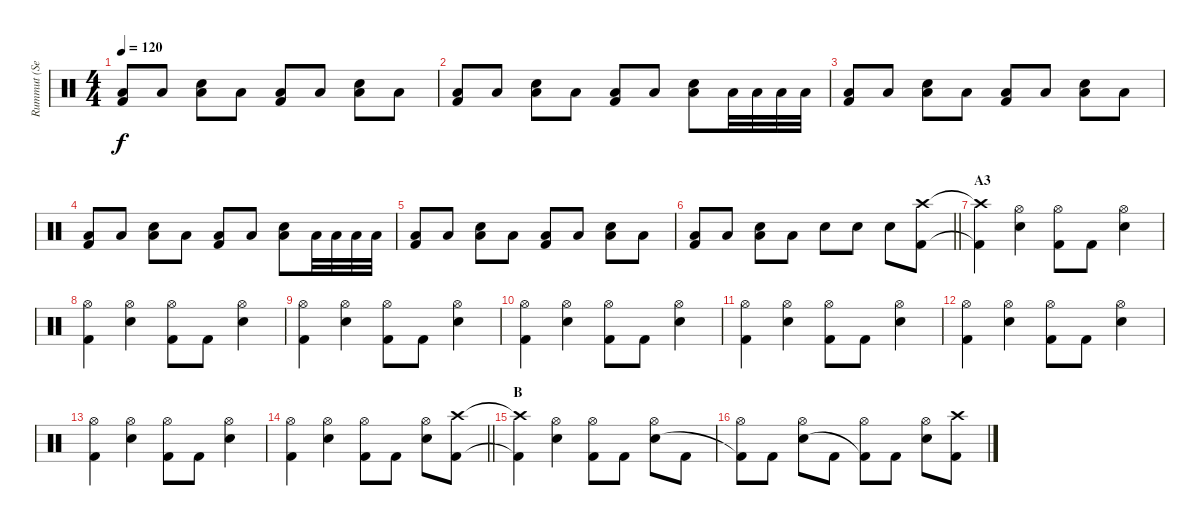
\track ("Rummut (Seppo Pohjolainen)" "Rummut (Se") {instrument percussion}
\staff {score}
\articulation defaults
\ts (4 4)
\tempo 120
\clef neutral
\ks c
("Low Floor Tom (hit)" "Kick (hit) 2").8{dy f} "Low Floor Tom (hit)".8 ("Low Floor Tom (hit)" "Electric Snare (hit)").8 "Low Floor Tom (hit)".8 ("Low Floor Tom (hit)" "Kick (hit) 2").8 "Low Floor Tom (hit)".8 ("Low Floor Tom (hit)" "Electric Snare (hit)").8 "Low Floor Tom (hit)".8 |
("Low Floor Tom (hit)" "Kick (hit) 2").8 "Low Floor Tom (hit)".8 ("Low Floor Tom (hit)" "Electric Snare (hit)").8 "Low Floor Tom (hit)".8 ("Low Floor Tom (hit)" "Kick (hit) 2").8 "Low Floor Tom (hit)".8 ("Low Floor Tom (hit)" "Electric Snare (hit)").8 "Low Floor Tom (hit)".32 "Low Floor Tom (hit)".32 "Low Floor Tom (hit)".32 "Low Floor Tom (hit)".32 |
("Low Floor Tom (hit)" "Kick (hit) 2").8 "Low Floor Tom (hit)".8 ("Low Floor Tom (hit)" "Electric Snare (hit)").8 "Low Floor Tom (hit)".8 ("Low Floor Tom (hit)" "Kick (hit) 2").8 "Low Floor Tom (hit)".8 ("Low Floor Tom (hit)" "Electric Snare (hit)").8 "Low Floor Tom (hit)".8 |
("Low Floor Tom (hit)" "Kick (hit) 2").8 "Low Floor Tom (hit)".8 ("Low Floor Tom (hit)" "Electric Snare (hit)").8 "Low Floor Tom (hit)".8 ("Low Floor Tom (hit)" "Kick (hit) 2").8 "Low Floor Tom (hit)".8 ("Low Floor Tom (hit)" "Electric Snare (hit)").8 "Low Floor Tom (hit)".32 "Low Floor Tom (hit)".32 "Low Floor Tom (hit)".32 "Low Floor Tom (hit)".32 |
("Low Floor Tom (hit)" "Kick (hit) 2").8 "Low Floor Tom (hit)".8 ("Low Floor Tom (hit)" "Electric Snare (hit)").8 "Low Floor Tom (hit)".8 ("Low Floor Tom (hit)" "Kick (hit) 2").8 "Low Floor Tom (hit)".8 ("Low Floor Tom (hit)" "Electric Snare (hit)").8 "Low Floor Tom (hit)".8 |
\barLineRight lightlight
("Low Floor Tom (hit)" "Kick (hit) 2").8 "Low Floor Tom (hit)".8 ("Low Floor Tom (hit)" "Electric Snare (hit)").8 "Low Floor Tom (hit)".8 "Electric Snare (hit)".8 "Electric Snare (hit)".8 "Electric Snare (hit)".8 ("Crash high (hit)" "Kick (hit) 2").8 |
\section ("" "A3")
("Crash high (hit)"{t} "Kick (hit) 2"{t}).4 ("Hi-Hat (open)" "Electric Snare (hit)").4 ("Hi-Hat (open)" "Kick (hit) 2").8 "Kick (hit) 2".8 ("Hi-Hat (open)" "Electric Snare (hit)").4 |
("Hi-Hat (open)" "Kick (hit) 2").4 ("Hi-Hat (open)" "Electric Snare (hit)").4 ("Hi-Hat (open)" "Kick (hit) 2").8 "Kick (hit) 2".8 ("Hi-Hat (open)" "Electric Snare (hit)").4 |
("Hi-Hat (open)" "Kick (hit) 2").4 ("Hi-Hat (open)" "Electric Snare (hit)").4 ("Hi-Hat (open)" "Kick (hit) 2").8 "Kick (hit) 2".8 ("Hi-Hat (open)" "Electric Snare (hit)").4 |
("Hi-Hat (open)" "Kick (hit) 2").4 ("Hi-Hat (open)" "Electric Snare (hit)").4 ("Hi-Hat (open)" "Kick (hit) 2").8 "Kick (hit) 2".8 ("Hi-Hat (open)" "Electric Snare (hit)").4 |
("Hi-Hat (open)" "Kick (hit) 2").4 ("Hi-Hat (open)" "Electric Snare (hit)").4 ("Hi-Hat (open)" "Kick (hit) 2").8 "Kick (hit) 2".8 ("Hi-Hat (open)" "Electric Snare (hit)").4 |
("Hi-Hat (open)" "Kick (hit) 2").4 ("Hi-Hat (open)" "Electric Snare (hit)").4 ("Hi-Hat (open)" "Kick (hit) 2").8 "Kick (hit) 2".8 ("Hi-Hat (open)" "Electric Snare (hit)").4 |
("Hi-Hat (open)" "Kick (hit) 2").4 ("Hi-Hat (open)" "Electric Snare (hit)").4 ("Hi-Hat (open)" "Kick (hit) 2").8 "Kick (hit) 2".8 ("Hi-Hat (open)" "Electric Snare (hit)").4 |
\barLineRight lightlight
("Hi-Hat (open)" "Kick (hit) 2").4 ("Hi-Hat (open)" "Electric Snare (hit)").4 ("Hi-Hat (open)" "Kick (hit) 2").8 "Kick (hit) 2".8 ("Hi-Hat (open)" "Electric Snare (hit)").8 ("Crash high (hit)" "Kick (hit) 2").8 |
\section ("" "B")
("Crash high (hit)"{t} "Kick (hit) 2"{t}).4 ("Hi-Hat (open)" "Electric Snare (hit)").4 ("Hi-Hat (open)" "Kick (hit) 2").8 "Kick (hit) 2".8 ("Hi-Hat (open)" "Electric Snare (hit)").8 "Kick (hit) 2".8 |
("Hi-Hat (open)" "Kick (hit) 2"{t}).8 "Kick (hit) 2".8 ("Hi-Hat (open)" "Electric Snare (hit)").8 "Kick (hit) 2".8 ("Hi-Hat (open)" "Kick (hit) 2"{t}).8 "Kick (hit) 2".8 ("Hi-Hat (open)" "Electric Snare (hit)").8 ("Crash high (hit)" "Kick (hit) 2").8
